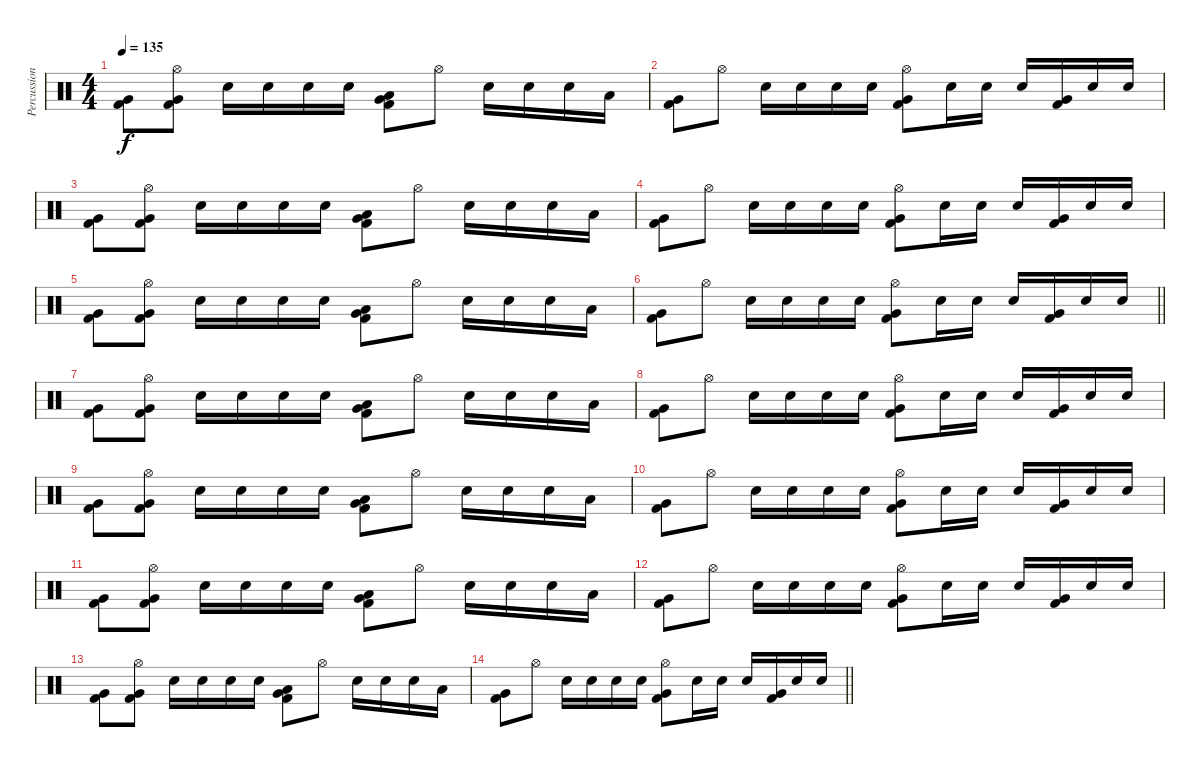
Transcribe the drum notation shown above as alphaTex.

\track ("Percussion" "Percussion") {instrument percussion}
\staff {score}
\articulation defaults
\ts (4 4)
\tempo 135
\clef neutral
\ks c
("Very Low Tom (hit)" "Kick (hit) 2").8{dy f} ("Hi-Hat (open)" "Very Low Tom (hit)" "Kick (hit) 2").8 "Electric Snare (hit)".16 "Electric Snare (hit)".16 "Electric Snare (hit)".16 "Electric Snare (hit)".16 ("Low Tom (hit)" "Very Low Tom (hit)" "Kick (hit) 2").8 "Hi-Hat (open)".8 "Electric Snare (hit)".16 "Electric Snare (hit)".16 "Electric Snare (hit)".16 "Low Tom (hit)".16 |
("Very Low Tom (hit)" "Kick (hit) 2").8 "Hi-Hat (open)".8 "Electric Snare (hit)".16 "Electric Snare (hit)".16 "Electric Snare (hit)".16 "Electric Snare (hit)".16 ("Hi-Hat (open)" "Very Low Tom (hit)" "Kick (hit) 2").8 "Electric Snare (hit)".16 "Electric Snare (hit)".16 "Electric Snare (hit)".16 ("Very Low Tom (hit)" "Kick (hit) 2").16 "Electric Snare (hit)".16 "Electric Snare (hit)".16 |
("Very Low Tom (hit)" "Kick (hit) 2").8 ("Hi-Hat (open)" "Very Low Tom (hit)" "Kick (hit) 2").8 "Electric Snare (hit)".16 "Electric Snare (hit)".16 "Electric Snare (hit)".16 "Electric Snare (hit)".16 ("Low Tom (hit)" "Very Low Tom (hit)" "Kick (hit) 2").8 "Hi-Hat (open)".8 "Electric Snare (hit)".16 "Electric Snare (hit)".16 "Electric Snare (hit)".16 "Low Tom (hit)".16 |
("Very Low Tom (hit)" "Kick (hit) 2").8 "Hi-Hat (open)".8 "Electric Snare (hit)".16 "Electric Snare (hit)".16 "Electric Snare (hit)".16 "Electric Snare (hit)".16 ("Hi-Hat (open)" "Very Low Tom (hit)" "Kick (hit) 2").8 "Electric Snare (hit)".16 "Electric Snare (hit)".16 "Electric Snare (hit)".16 ("Very Low Tom (hit)" "Kick (hit) 2").16 "Electric Snare (hit)".16 "Electric Snare (hit)".16 |
("Very Low Tom (hit)" "Kick (hit) 2").8 ("Hi-Hat (open)" "Very Low Tom (hit)" "Kick (hit) 2").8 "Electric Snare (hit)".16 "Electric Snare (hit)".16 "Electric Snare (hit)".16 "Electric Snare (hit)".16 ("Low Tom (hit)" "Very Low Tom (hit)" "Kick (hit) 2").8 "Hi-Hat (open)".8 "Electric Snare (hit)".16 "Electric Snare (hit)".16 "Electric Snare (hit)".16 "Low Tom (hit)".16 |
\barLineRight lightlight
("Very Low Tom (hit)" "Kick (hit) 2").8 "Hi-Hat (open)".8 "Electric Snare (hit)".16 "Electric Snare (hit)".16 "Electric Snare (hit)".16 "Electric Snare (hit)".16 ("Hi-Hat (open)" "Very Low Tom (hit)" "Kick (hit) 2").8 "Electric Snare (hit)".16 "Electric Snare (hit)".16 "Electric Snare (hit)".16 ("Very Low Tom (hit)" "Kick (hit) 2").16 "Electric Snare (hit)".16 "Electric Snare (hit)".16 |
("Very Low Tom (hit)" "Kick (hit) 2").8 ("Hi-Hat (open)" "Very Low Tom (hit)" "Kick (hit) 2").8 "Electric Snare (hit)".16 "Electric Snare (hit)".16 "Electric Snare (hit)".16 "Electric Snare (hit)".16 ("Low Tom (hit)" "Very Low Tom (hit)" "Kick (hit) 2").8 "Hi-Hat (open)".8 "Electric Snare (hit)".16 "Electric Snare (hit)".16 "Electric Snare (hit)".16 "Low Tom (hit)".16 |
("Very Low Tom (hit)" "Kick (hit) 2").8 "Hi-Hat (open)".8 "Electric Snare (hit)".16 "Electric Snare (hit)".16 "Electric Snare (hit)".16 "Electric Snare (hit)".16 ("Hi-Hat (open)" "Very Low Tom (hit)" "Kick (hit) 2").8 "Electric Snare (hit)".16 "Electric Snare (hit)".16 "Electric Snare (hit)".16 ("Very Low Tom (hit)" "Kick (hit) 2").16 "Electric Snare (hit)".16 "Electric Snare (hit)".16 |
("Very Low Tom (hit)" "Kick (hit) 2").8 ("Hi-Hat (open)" "Very Low Tom (hit)" "Kick (hit) 2").8 "Electric Snare (hit)".16 "Electric Snare (hit)".16 "Electric Snare (hit)".16 "Electric Snare (hit)".16 ("Low Tom (hit)" "Very Low Tom (hit)" "Kick (hit) 2").8 "Hi-Hat (open)".8 "Electric Snare (hit)".16 "Electric Snare (hit)".16 "Electric Snare (hit)".16 "Low Tom (hit)".16 |
("Very Low Tom (hit)" "Kick (hit) 2").8 "Hi-Hat (open)".8 "Electric Snare (hit)".16 "Electric Snare (hit)".16 "Electric Snare (hit)".16 "Electric Snare (hit)".16 ("Hi-Hat (open)" "Very Low Tom (hit)" "Kick (hit) 2").8 "Electric Snare (hit)".16 "Electric Snare (hit)".16 "Electric Snare (hit)".16 ("Very Low Tom (hit)" "Kick (hit) 2").16 "Electric Snare (hit)".16 "Electric Snare (hit)".16 |
("Very Low Tom (hit)" "Kick (hit) 2").8 ("Hi-Hat (open)" "Very Low Tom (hit)" "Kick (hit) 2").8 "Electric Snare (hit)".16 "Electric Snare (hit)".16 "Electric Snare (hit)".16 "Electric Snare (hit)".16 ("Low Tom (hit)" "Very Low Tom (hit)" "Kick (hit) 2").8 "Hi-Hat (open)".8 "Electric Snare (hit)".16 "Electric Snare (hit)".16 "Electric Snare (hit)".16 "Low Tom (hit)".16 |
("Very Low Tom (hit)" "Kick (hit) 2").8 "Hi-Hat (open)".8 "Electric Snare (hit)".16 "Electric Snare (hit)".16 "Electric Snare (hit)".16 "Electric Snare (hit)".16 ("Hi-Hat (open)" "Very Low Tom (hit)" "Kick (hit) 2").8 "Electric Snare (hit)".16 "Electric Snare (hit)".16 "Electric Snare (hit)".16 ("Very Low Tom (hit)" "Kick (hit) 2").16 "Electric Snare (hit)".16 "Electric Snare (hit)".16 |
("Very Low Tom (hit)" "Kick (hit) 2").8 ("Hi-Hat (open)" "Very Low Tom (hit)" "Kick (hit) 2").8 "Electric Snare (hit)".16 "Electric Snare (hit)".16 "Electric Snare (hit)".16 "Electric Snare (hit)".16 ("Low Tom (hit)" "Very Low Tom (hit)" "Kick (hit) 2").8 "Hi-Hat (open)".8 "Electric Snare (hit)".16 "Electric Snare (hit)".16 "Electric Snare (hit)".16 "Low Tom (hit)".16 |
\barLineRight lightlight
("Very Low Tom (hit)" "Kick (hit) 2").8 "Hi-Hat (open)".8 "Electric Snare (hit)".16 "Electric Snare (hit)".16 "Electric Snare (hit)".16 "Electric Snare (hit)".16 ("Hi-Hat (open)" "Very Low Tom (hit)" "Kick (hit) 2").8 "Electric Snare (hit)".16 "Electric Snare (hit)".16 "Electric Snare (hit)".16 ("Very Low Tom (hit)" "Kick (hit) 2").16 "Electric Snare (hit)".16 "Electric Snare (hit)".16
